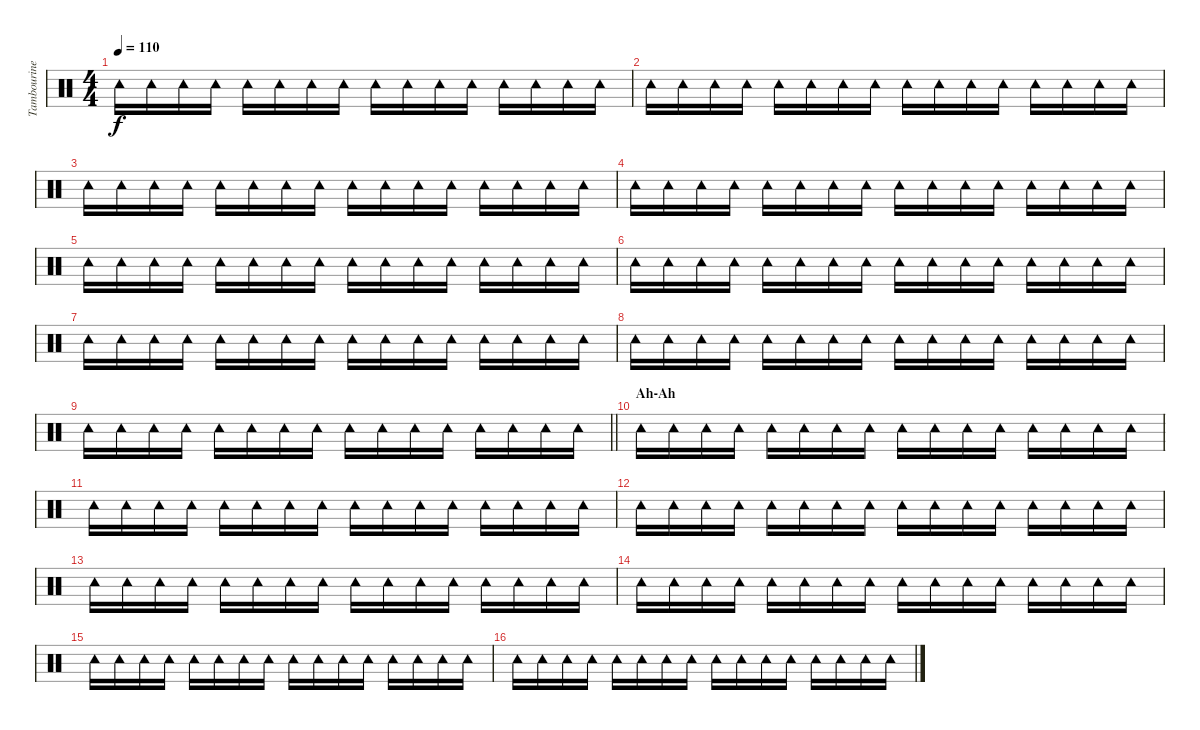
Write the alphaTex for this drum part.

\track ("Tambourine" "Tambourine") {instrument percussion}
\staff {score}
\articulation defaults
\ts (4 4)
\tempo 110
\clef neutral
\ks c "Tambourine (hit)".16{dy f} "Tambourine (hit)".16 "Tambourine (hit)".16 "Tambourine (hit)".16 "Tambourine (hit)".16 "Tambourine (hit)".16 "Tambourine (hit)".16 "Tambourine (hit)".16 "Tambourine (hit)".16 "Tambourine (hit)".16 "Tambourine (hit)".16 "Tambourine (hit)".16 "Tambourine (hit)".16 "Tambourine (hit)".16 "Tambourine (hit)".16 "Tambourine (hit)".16
|
"Tambourine (hit)".16 "Tambourine (hit)".16 "Tambourine (hit)".16 "Tambourine (hit)".16 "Tambourine (hit)".16 "Tambourine (hit)".16 "Tambourine (hit)".16 "Tambourine (hit)".16 "Tambourine (hit)".16 "Tambourine (hit)".16 "Tambourine (hit)".16 "Tambourine (hit)".16 "Tambourine (hit)".16 "Tambourine (hit)".16 "Tambourine (hit)".16 "Tambourine (hit)".16 |
"Tambourine (hit)".16 "Tambourine (hit)".16 "Tambourine (hit)".16 "Tambourine (hit)".16 "Tambourine (hit)".16 "Tambourine (hit)".16 "Tambourine (hit)".16 "Tambourine (hit)".16 "Tambourine (hit)".16 "Tambourine (hit)".16 "Tambourine (hit)".16 "Tambourine (hit)".16 "Tambourine (hit)".16 "Tambourine (hit)".16 "Tambourine (hit)".16 "Tambourine (hit)".16 |
"Tambourine (hit)".16 "Tambourine (hit)".16 "Tambourine (hit)".16 "Tambourine (hit)".16 "Tambourine (hit)".16 "Tambourine (hit)".16 "Tambourine (hit)".16 "Tambourine (hit)".16 "Tambourine (hit)".16 "Tambourine (hit)".16 "Tambourine (hit)".16 "Tambourine (hit)".16 "Tambourine (hit)".16 "Tambourine (hit)".16 "Tambourine (hit)".16 "Tambourine (hit)".16 |
"Tambourine (hit)".16 "Tambourine (hit)".16 "Tambourine (hit)".16 "Tambourine (hit)".16 "Tambourine (hit)".16 "Tambourine (hit)".16 "Tambourine (hit)".16 "Tambourine (hit)".16 "Tambourine (hit)".16 "Tambourine (hit)".16 "Tambourine (hit)".16 "Tambourine (hit)".16 "Tambourine (hit)".16 "Tambourine (hit)".16 "Tambourine (hit)".16 "Tambourine (hit)".16 |
"Tambourine (hit)".16 "Tambourine (hit)".16 "Tambourine (hit)".16 "Tambourine (hit)".16 "Tambourine (hit)".16 "Tambourine (hit)".16 "Tambourine (hit)".16 "Tambourine (hit)".16 "Tambourine (hit)".16 "Tambourine (hit)".16 "Tambourine (hit)".16 "Tambourine (hit)".16 "Tambourine (hit)".16 "Tambourine (hit)".16 "Tambourine (hit)".16 "Tambourine (hit)".16 |
"Tambourine (hit)".16 "Tambourine (hit)".16 "Tambourine (hit)".16 "Tambourine (hit)".16 "Tambourine (hit)".16 "Tambourine (hit)".16 "Tambourine (hit)".16 "Tambourine (hit)".16 "Tambourine (hit)".16 "Tambourine (hit)".16 "Tambourine (hit)".16 "Tambourine (hit)".16 "Tambourine (hit)".16 "Tambourine (hit)".16 "Tambourine (hit)".16 "Tambourine (hit)".16 |
"Tambourine (hit)".16 "Tambourine (hit)".16 "Tambourine (hit)".16 "Tambourine (hit)".16 "Tambourine (hit)".16 "Tambourine (hit)".16 "Tambourine (hit)".16 "Tambourine (hit)".16 "Tambourine (hit)".16 "Tambourine (hit)".16 "Tambourine (hit)".16 "Tambourine (hit)".16 "Tambourine (hit)".16 "Tambourine (hit)".16 "Tambourine (hit)".16 "Tambourine (hit)".16 |
\barLineRight lightlight "Tambourine (hit)".16 "Tambourine (hit)".16 "Tambourine (hit)".16 "Tambourine (hit)".16 "Tambourine (hit)".16 "Tambourine (hit)".16 "Tambourine (hit)".16 "Tambourine (hit)".16 "Tambourine (hit)".16 "Tambourine (hit)".16 "Tambourine (hit)".16 "Tambourine (hit)".16 "Tambourine (hit)".16 "Tambourine (hit)".16 "Tambourine (hit)".16 "Tambourine (hit)".16
|
\section ("" "Ah-Ah")
"Tambourine (hit)".16 "Tambourine (hit)".16 "Tambourine (hit)".16 "Tambourine (hit)".16 "Tambourine (hit)".16 "Tambourine (hit)".16 "Tambourine (hit)".16 "Tambourine (hit)".16 "Tambourine (hit)".16 "Tambourine (hit)".16 "Tambourine (hit)".16 "Tambourine (hit)".16 "Tambourine (hit)".16 "Tambourine (hit)".16 "Tambourine (hit)".16 "Tambourine (hit)".16 |
"Tambourine (hit)".16 "Tambourine (hit)".16 "Tambourine (hit)".16 "Tambourine (hit)".16 "Tambourine (hit)".16 "Tambourine (hit)".16 "Tambourine (hit)".16 "Tambourine (hit)".16 "Tambourine (hit)".16 "Tambourine (hit)".16 "Tambourine (hit)".16 "Tambourine (hit)".16 "Tambourine (hit)".16 "Tambourine (hit)".16 "Tambourine (hit)".16 "Tambourine (hit)".16 |
"Tambourine (hit)".16 "Tambourine (hit)".16 "Tambourine (hit)".16 "Tambourine (hit)".16 "Tambourine (hit)".16 "Tambourine (hit)".16 "Tambourine (hit)".16 "Tambourine (hit)".16 "Tambourine (hit)".16 "Tambourine (hit)".16 "Tambourine (hit)".16 "Tambourine (hit)".16 "Tambourine (hit)".16 "Tambourine (hit)".16 "Tambourine (hit)".16 "Tambourine (hit)".16 |
"Tambourine (hit)".16 "Tambourine (hit)".16 "Tambourine (hit)".16 "Tambourine (hit)".16 "Tambourine (hit)".16 "Tambourine (hit)".16 "Tambourine (hit)".16 "Tambourine (hit)".16 "Tambourine (hit)".16 "Tambourine (hit)".16 "Tambourine (hit)".16 "Tambourine (hit)".16 "Tambourine (hit)".16 "Tambourine (hit)".16 "Tambourine (hit)".16 "Tambourine (hit)".16 |
"Tambourine (hit)".16 "Tambourine (hit)".16 "Tambourine (hit)".16 "Tambourine (hit)".16 "Tambourine (hit)".16 "Tambourine (hit)".16 "Tambourine (hit)".16 "Tambourine (hit)".16 "Tambourine (hit)".16 "Tambourine (hit)".16 "Tambourine (hit)".16 "Tambourine (hit)".16 "Tambourine (hit)".16 "Tambourine (hit)".16 "Tambourine (hit)".16 "Tambourine (hit)".16 |
"Tambourine (hit)".16 "Tambourine (hit)".16 "Tambourine (hit)".16 "Tambourine (hit)".16 "Tambourine (hit)".16 "Tambourine (hit)".16 "Tambourine (hit)".16 "Tambourine (hit)".16 "Tambourine (hit)".16 "Tambourine (hit)".16 "Tambourine (hit)".16 "Tambourine (hit)".16 "Tambourine (hit)".16 "Tambourine (hit)".16 "Tambourine (hit)".16 "Tambourine (hit)".16 |
"Tambourine (hit)".16 "Tambourine (hit)".16 "Tambourine (hit)".16 "Tambourine (hit)".16 "Tambourine (hit)".16 "Tambourine (hit)".16 "Tambourine (hit)".16 "Tambourine (hit)".16 "Tambourine (hit)".16 "Tambourine (hit)".16 "Tambourine (hit)".16 "Tambourine (hit)".16 "Tambourine (hit)".16 "Tambourine (hit)".16 "Tambourine (hit)".16 "Tambourine (hit)".16
